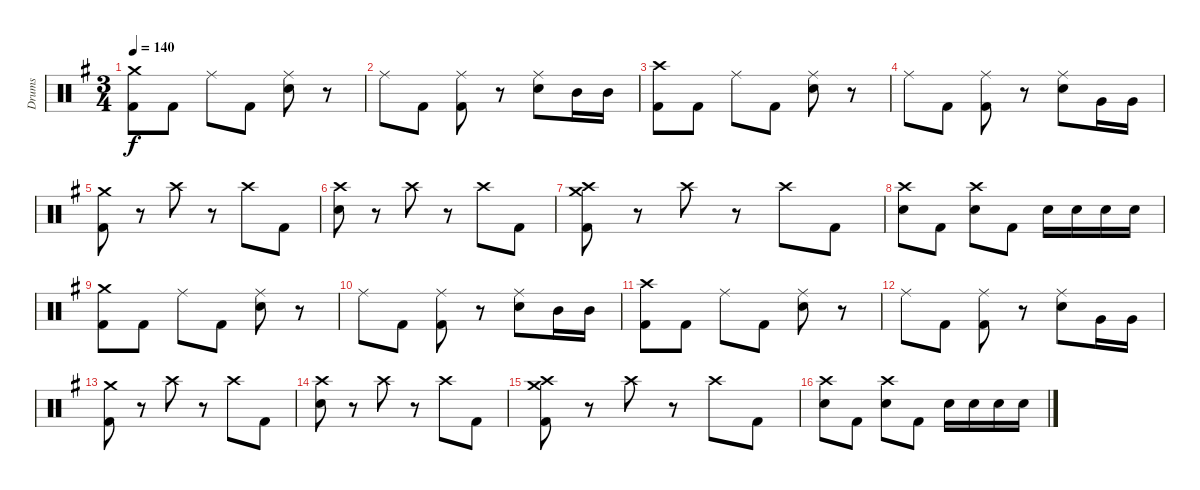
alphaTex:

\track ("Drums" "Drums") {instrument percussion}
\staff {score}
\articulation defaults
\ts (3 4)
\tempo 140
\clef neutral
\ks eminor
("Crash medium (hit)" "Kick (hit) 2").8{dy f} "Kick (hit) 2".8 "Ride (middle)".8 "Kick (hit) 2".8 ("Ride (middle)" "Snare (hit) 2").8 r.8 |
"Ride (middle)".8 "Kick (hit) 2".8 ("Ride (middle)" "Kick (hit) 2").8 r.8 ("Ride (middle)" "Snare (hit) 2").8 "Mid Tom (hit)".16 "Mid Tom (hit)".16 |
("Crash high (hit)" "Kick (hit) 2").8 "Kick (hit) 2".8 "Ride (middle)".8 "Kick (hit) 2".8 ("Ride (middle)" "Snare (hit) 2").8 r.8 |
"Ride (middle)".8 "Kick (hit) 2".8 ("Ride (middle)" "Kick (hit) 2").8 r.8 ("Ride (middle)" "Snare (hit) 2").8 "Very Low Tom (hit)".16 "Very Low Tom (hit)".16 |
("Crash medium (hit)" "Kick (hit) 2").8 r.8 "Crash high (hit)".8 r.8 "Crash high (hit)".8 "Kick (hit) 2".8 |
("Crash high (hit)" "Snare (hit) 2").8 r.8 "Crash high (hit)".8 r.8 "Crash high (hit)".8 "Kick (hit) 2".8 |
("Crash medium (hit)" "Crash high (hit)" "Kick (hit) 2").8 r.8 "Crash high (hit)".8 r.8 "Crash high (hit)".8 "Kick (hit) 2".8 |
("Crash high (hit)" "Snare (hit) 2").8 "Kick (hit) 2".8 ("Crash high (hit)" "Snare (hit) 2").8 "Kick (hit) 2".8 "Snare (hit) 2".16 "Snare (hit) 2".16 "Snare (hit) 2".16 "Snare (hit) 2".16 |
("Crash medium (hit)" "Kick (hit) 2").8 "Kick (hit) 2".8 "Ride (middle)".8 "Kick (hit) 2".8 ("Ride (middle)" "Snare (hit) 2").8 r.8 |
"Ride (middle)".8 "Kick (hit) 2".8 ("Ride (middle)" "Kick (hit) 2").8 r.8 ("Ride (middle)" "Snare (hit) 2").8 "Mid Tom (hit)".16 "Mid Tom (hit)".16 |
("Crash high (hit)" "Kick (hit) 2").8 "Kick (hit) 2".8 "Ride (middle)".8 "Kick (hit) 2".8 ("Ride (middle)" "Snare (hit) 2").8 r.8 |
"Ride (middle)".8 "Kick (hit) 2".8 ("Ride (middle)" "Kick (hit) 2").8 r.8 ("Ride (middle)" "Snare (hit) 2").8 "Very Low Tom (hit)".16 "Very Low Tom (hit)".16 |
("Crash medium (hit)" "Kick (hit) 2").8 r.8 "Crash high (hit)".8 r.8 "Crash high (hit)".8 "Kick (hit) 2".8 |
("Crash high (hit)" "Snare (hit) 2").8 r.8 "Crash high (hit)".8 r.8 "Crash high (hit)".8 "Kick (hit) 2".8 |
("Crash medium (hit)" "Crash high (hit)" "Kick (hit) 2").8 r.8 "Crash high (hit)".8 r.8 "Crash high (hit)".8 "Kick (hit) 2".8 |
("Crash high (hit)" "Snare (hit) 2").8 "Kick (hit) 2".8 ("Crash high (hit)" "Snare (hit) 2").8 "Kick (hit) 2".8 "Snare (hit) 2".16 "Snare (hit) 2".16 "Snare (hit) 2".16 "Snare (hit) 2".16
